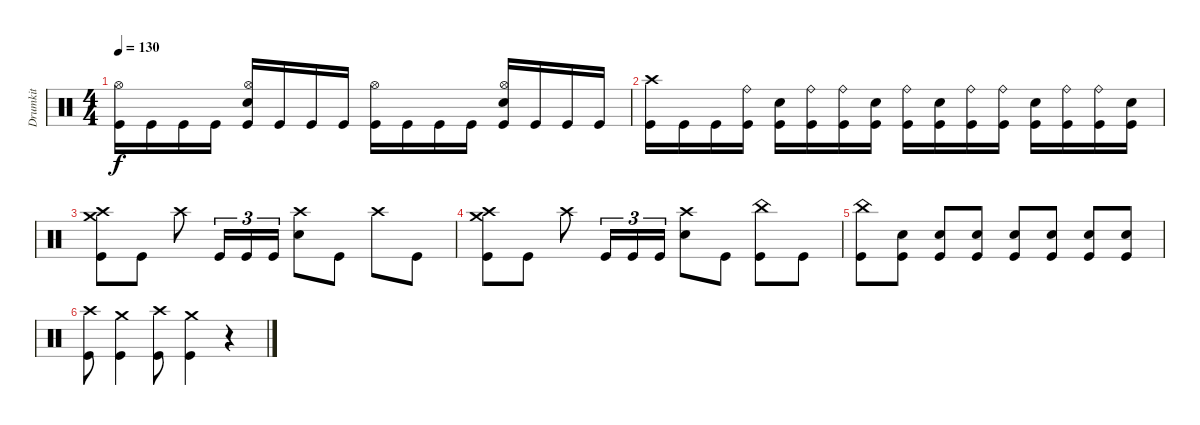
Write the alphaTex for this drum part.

\track ("Drumkit" "Drumkit") {instrument percussion}
\staff {score}
\articulation defaults
\ts (4 4)
\tempo 130
\clef neutral
\ks c
("Kick (hit)" "Hi-Hat (open)").16{dy f} "Kick (hit)".16 "Kick (hit)".16 "Kick (hit)".16 ("Kick (hit)" "Hi-Hat (open)" "Snare (hit) 2").16 "Kick (hit)".16 "Kick (hit)".16 "Kick (hit)".16 ("Kick (hit)" "Hi-Hat (open)").16 "Kick (hit)".16 "Kick (hit)".16 "Kick (hit)".16 ("Kick (hit)" "Hi-Hat (open)" "Snare (hit) 2").16 "Kick (hit)".16 "Kick (hit)".16 "Kick (hit)".16 |
("Kick (hit)" "Crash high (hit)").16 "Kick (hit)".16 "Kick (hit)".16 ("Ride (bell)" "Kick (hit)").16 ("Snare (hit) 2" "Kick (hit)").16 ("Kick (hit)" "Ride (bell)").16 ("Ride (bell)" "Kick (hit)").16 ("Kick (hit)" "Snare (hit) 2").16 ("Ride (bell)" "Kick (hit)").16 ("Kick (hit)" "Snare (hit) 2").16 ("Ride (bell)" "Kick (hit)").16 ("Ride (bell)" "Kick (hit)").16 ("Snare (hit) 2" "Kick (hit)").16 ("Ride (bell)" "Kick (hit)").16 ("Ride (bell)" "Kick (hit)").16 ("Snare (hit) 2" "Kick (hit)").16 |
("Kick (hit)" "Crash high (hit)" "Crash medium (hit)").8 "Kick (hit)".8 "Crash high (hit)".8 "Kick (hit)".16{tu (3 2)} "Kick (hit)".16{tu (3 2)} "Kick (hit)".16{tu (3 2)} ("Snare (hit) 2" "Crash high (hit)").8 "Kick (hit)".8 "Crash high (hit)".8 "Kick (hit)".8 |
("Crash medium (hit)" "Crash high (hit)" "Kick (hit)").8 "Kick (hit)".8 "Crash high (hit)".8 "Kick (hit)".16{tu (3 2)} "Kick (hit)".16{tu (3 2)} "Kick (hit)".16{tu (3 2)} ("Snare (hit) 2" "Crash high (hit)").8 "Kick (hit)".8 ("Kick (hit)" "China (hit)").8 "Kick (hit)".8 |
("China (hit)" "Kick (hit)").8 ("Kick (hit)" "Snare (hit) 2").8 ("Kick (hit)" "Snare (hit) 2").8 ("Kick (hit)" "Snare (hit) 2").8 ("Kick (hit)" "Snare (hit) 2").8 ("Kick (hit)" "Snare (hit) 2").8 ("Kick (hit)" "Snare (hit) 2").8 ("Kick (hit)" "Snare (hit) 2").8 |
("Kick (hit)" "Crash high (hit)").8 ("Kick (hit)" "Crash medium (hit)").4 ("Kick (hit)" "Crash high (hit)").8 ("Kick (hit)" "Crash medium (hit)").4 r.4
